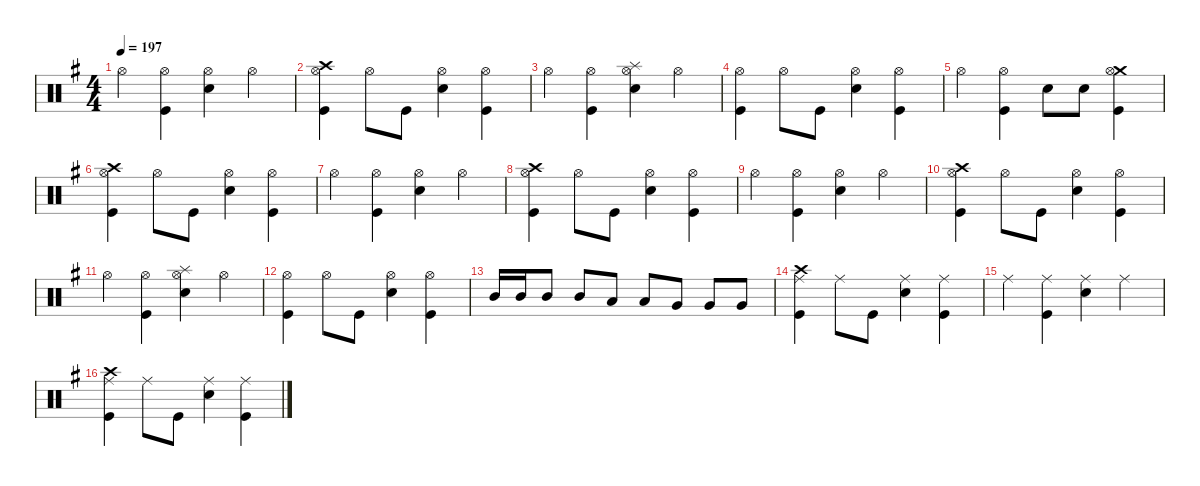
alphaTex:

\defaultSystemsLayout 4
\hideDynamics
\bracketExtendMode nobrackets
\singleTrackTrackNamePolicy hidden
\multiTrackTrackNamePolicy hidden
\firstSystemTrackNameMode fullname
\firstSystemTrackNameOrientation horizontal
\otherSystemsTrackNameOrientation horizontal
\track ("Drums" "drm.") {defaultSystemsLayout 4 instrument percussion}
\staff {score}
\articulation defaults
\ts (4 4)
\tempo 197
\clef neutral
\ks eminor "Hi-Hat (open)"{acc forcenatural}.4{dy f beam Down}
("Hi-Hat (open)"{acc forcenatural} "Kick (hit)"{acc forcenatural}).4{beam Down} ("Hi-Hat (open)"{acc forcenatural} "Snare (hit) 2"{acc forcenatural}).4{beam Down} "Hi-Hat (open)"{acc forcenatural}.4{beam Down} |
("Crash high (hit)"{acc forcenatural} "Hi-Hat (open)"{acc forcenatural} "Kick (hit)"{acc forcenatural}).4{beam Down} "Hi-Hat (open)"{acc forcenatural}.8{beam Down} "Kick (hit)"{acc forcenatural}.8{beam Down} ("Hi-Hat (open)"{acc forcenatural} "Snare (hit) 2"{acc forcenatural}).4{beam Down} ("Hi-Hat (open)"{acc forcenatural} "Kick (hit)"{acc forcenatural}).4{beam Down} |
"Hi-Hat (open)"{acc forcenatural}.4{beam Down} ("Hi-Hat (open)"{acc forcenatural} "Kick (hit)"{acc forcenatural}).4{beam Down} ("Splash (hit)"{acc forcenatural} "Hi-Hat (open)"{acc forcenatural} "Snare (hit) 2"{acc forcenatural}).4{beam Down} "Hi-Hat (open)"{acc forcenatural}.4{beam Down} |
("Hi-Hat (open)"{acc forcenatural} "Kick (hit)"{acc forcenatural}).4{beam Down} "Hi-Hat (open)"{acc forcenatural}.8{beam Down} "Kick (hit)"{acc forcenatural}.8{beam Down} ("Hi-Hat (open)"{acc forcenatural} "Snare (hit) 2"{acc forcenatural}).4{beam Down} ("Hi-Hat (open)"{acc forcenatural} "Kick (hit)"{acc forcenatural}).4{beam Down} |
"Hi-Hat (open)"{acc forcenatural}.4{beam Down} ("Hi-Hat (open)"{acc forcenatural} "Kick (hit)"{acc forcenatural}).4{beam Down} "Snare (hit) 2"{acc forcenatural}.8{beam Down} "Snare (hit) 2"{acc forcenatural}.8{beam Down} ("Crash medium (hit)"{acc forcenatural} "Hi-Hat (open)"{acc forcenatural} "Kick (hit)"{acc forcenatural}).4{beam Down} |
("Crash high (hit)"{acc forcenatural} "Hi-Hat (open)"{acc forcenatural} "Kick (hit)"{acc forcenatural}).4{beam Down} "Hi-Hat (open)"{acc forcenatural}.8{beam Down} "Kick (hit)"{acc forcenatural}.8{beam Down} ("Hi-Hat (open)"{acc forcenatural} "Snare (hit) 2"{acc forcenatural}).4{beam Down} ("Hi-Hat (open)"{acc forcenatural} "Kick (hit)"{acc forcenatural}).4{beam Down} |
"Hi-Hat (open)"{acc forcenatural}.4{beam Down} ("Hi-Hat (open)"{acc forcenatural} "Kick (hit)"{acc forcenatural}).4{beam Down} ("Hi-Hat (open)"{acc forcenatural} "Snare (hit) 2"{acc forcenatural}).4{beam Down} "Hi-Hat (open)"{acc forcenatural}.4{beam Down} |
("Crash high (hit)"{acc forcenatural} "Hi-Hat (open)"{acc forcenatural} "Kick (hit)"{acc forcenatural}).4{beam Down} "Hi-Hat (open)"{acc forcenatural}.8{beam Down} "Kick (hit)"{acc forcenatural}.8{beam Down} ("Hi-Hat (open)"{acc forcenatural} "Snare (hit) 2"{acc forcenatural}).4{beam Down} ("Hi-Hat (open)"{acc forcenatural} "Kick (hit)"{acc forcenatural}).4{beam Down} |
"Hi-Hat (open)"{acc forcenatural}.4{beam Down} ("Hi-Hat (open)"{acc forcenatural} "Kick (hit)"{acc forcenatural}).4{beam Down} ("Hi-Hat (open)"{acc forcenatural} "Snare (hit) 2"{acc forcenatural}).4{beam Down} "Hi-Hat (open)"{acc forcenatural}.4{beam Down} |
("Crash high (hit)"{acc forcenatural} "Hi-Hat (open)"{acc forcenatural} "Kick (hit)"{acc forcenatural}).4{beam Down} "Hi-Hat (open)"{acc forcenatural}.8{beam Down} "Kick (hit)"{acc forcenatural}.8{beam Down} ("Hi-Hat (open)"{acc forcenatural} "Snare (hit) 2"{acc forcenatural}).4{beam Down} ("Hi-Hat (open)"{acc forcenatural} "Kick (hit)"{acc forcenatural}).4{beam Down} |
"Hi-Hat (open)"{acc forcenatural}.4{beam Down} ("Hi-Hat (open)"{acc forcenatural} "Kick (hit)"{acc forcenatural}).4{beam Down} ("Splash (hit)"{acc forcenatural} "Hi-Hat (open)"{acc forcenatural} "Snare (hit) 2"{acc forcenatural}).4{beam Down} "Hi-Hat (open)"{acc forcenatural}.4{beam Down} |
("Hi-Hat (open)"{acc forcenatural} "Kick (hit)"{acc forcenatural}).4{beam Down} "Hi-Hat (open)"{acc forcenatural}.8{beam Down} "Kick (hit)"{acc forcenatural}.8{beam Down} ("Hi-Hat (open)"{acc forcenatural} "Snare (hit) 2"{acc forcenatural}).4{beam Down} ("Hi-Hat (open)"{acc forcenatural} "Kick (hit)"{acc forcenatural}).4{beam Down} |
"Mid Tom (hit)"{acc forcenatural}.16{beam Up} "Mid Tom (hit)"{acc forcenatural}.16{beam Up} "Mid Tom (hit)"{acc forcenatural}.8{beam Up} "Mid Tom (hit)"{acc forcenatural}.8{beam Up} "Low Tom (hit)"{acc forcenatural}.8{beam Up} "Low Tom (hit)"{acc forcenatural}.8{beam Up} "Very Low Tom (hit)"{acc forcenatural}.8{beam Up} "Very Low Tom (hit)"{acc forcenatural}.8{beam Up} "Very Low Tom (hit)"{acc forcenatural}.8{beam Up} |
("Crash high (hit)"{acc forcenatural} "Ride (middle)"{acc forcenatural} "Kick (hit)"{acc forcenatural}).4{beam Down} "Ride (middle)"{acc forcenatural}.8{beam Down} "Kick (hit)"{acc forcenatural}.8{beam Down} ("Ride (middle)"{acc forcenatural} "Snare (hit) 2"{acc forcenatural}).4{beam Down} ("Ride (middle)"{acc forcenatural} "Kick (hit)"{acc forcenatural}).4{beam Down} |
"Ride (middle)"{acc forcenatural}.4{beam Down} ("Ride (middle)"{acc forcenatural} "Kick (hit)"{acc forcenatural}).4{beam Down} ("Ride (middle)"{acc forcenatural} "Snare (hit) 2"{acc forcenatural}).4{beam Down} "Ride (middle)"{acc forcenatural}.4{beam Down} |
("Crash high (hit)"{acc forcenatural} "Ride (middle)"{acc forcenatural} "Kick (hit)"{acc forcenatural}).4{beam Down} "Ride (middle)"{acc forcenatural}.8{beam Down} "Kick (hit)"{acc forcenatural}.8{beam Down} ("Ride (middle)"{acc forcenatural} "Snare (hit) 2"{acc forcenatural}).4{beam Down} ("Ride (middle)"{acc forcenatural} "Kick (hit)"{acc forcenatural}).4{beam Down}
